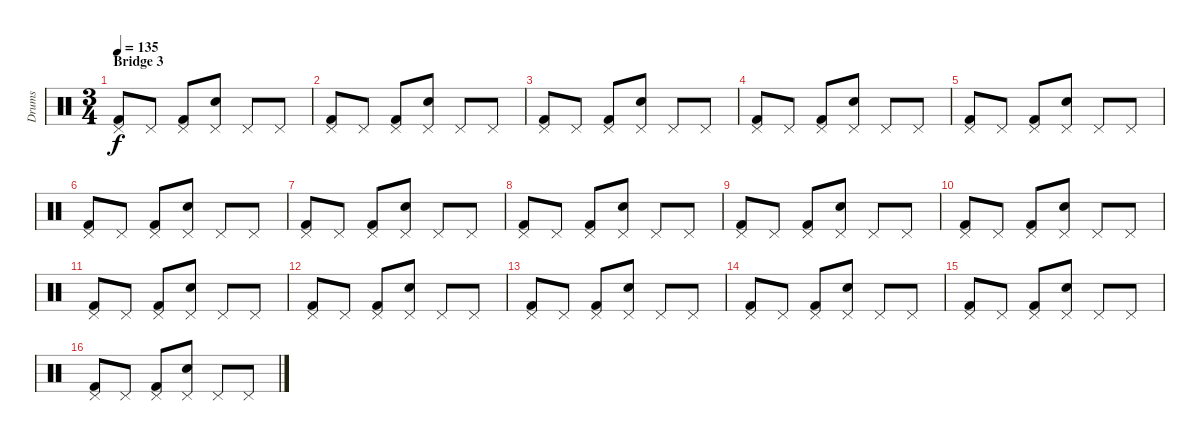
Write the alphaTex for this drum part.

\track ("Drums" "Drums") {instrument percussion}
\staff {score}
\articulation defaults
\ts (3 4)
\section ("" "Bridge 3")
\tempo 135
\clef neutral
\ks c
("Pedal Hi-Hat (hit)" "Kick (hit) 2").8{dy f} "Pedal Hi-Hat (hit)".8 ("Pedal Hi-Hat (hit)" "Kick (hit) 2").8 ("Pedal Hi-Hat (hit)" "Snare (hit) 2").8 "Pedal Hi-Hat (hit)".8 "Pedal Hi-Hat (hit)".8 |
("Pedal Hi-Hat (hit)" "Kick (hit) 2").8 "Pedal Hi-Hat (hit)".8 ("Pedal Hi-Hat (hit)" "Kick (hit) 2").8 ("Pedal Hi-Hat (hit)" "Snare (hit) 2").8 "Pedal Hi-Hat (hit)".8 "Pedal Hi-Hat (hit)".8 |
("Pedal Hi-Hat (hit)" "Kick (hit) 2").8 "Pedal Hi-Hat (hit)".8 ("Pedal Hi-Hat (hit)" "Kick (hit) 2").8 ("Pedal Hi-Hat (hit)" "Snare (hit) 2").8 "Pedal Hi-Hat (hit)".8 "Pedal Hi-Hat (hit)".8 |
("Pedal Hi-Hat (hit)" "Kick (hit) 2").8 "Pedal Hi-Hat (hit)".8 ("Pedal Hi-Hat (hit)" "Kick (hit) 2").8 ("Pedal Hi-Hat (hit)" "Snare (hit) 2").8 "Pedal Hi-Hat (hit)".8 "Pedal Hi-Hat (hit)".8 |
("Pedal Hi-Hat (hit)" "Kick (hit) 2").8 "Pedal Hi-Hat (hit)".8 ("Pedal Hi-Hat (hit)" "Kick (hit) 2").8 ("Pedal Hi-Hat (hit)" "Snare (hit) 2").8 "Pedal Hi-Hat (hit)".8 "Pedal Hi-Hat (hit)".8 |
("Pedal Hi-Hat (hit)" "Kick (hit) 2").8 "Pedal Hi-Hat (hit)".8 ("Pedal Hi-Hat (hit)" "Kick (hit) 2").8 ("Pedal Hi-Hat (hit)" "Snare (hit) 2").8 "Pedal Hi-Hat (hit)".8 "Pedal Hi-Hat (hit)".8 |
("Pedal Hi-Hat (hit)" "Kick (hit) 2").8 "Pedal Hi-Hat (hit)".8 ("Pedal Hi-Hat (hit)" "Kick (hit) 2").8 ("Pedal Hi-Hat (hit)" "Snare (hit) 2").8 "Pedal Hi-Hat (hit)".8 "Pedal Hi-Hat (hit)".8 |
("Pedal Hi-Hat (hit)" "Kick (hit) 2").8 "Pedal Hi-Hat (hit)".8 ("Pedal Hi-Hat (hit)" "Kick (hit) 2").8 ("Pedal Hi-Hat (hit)" "Snare (hit) 2").8 "Pedal Hi-Hat (hit)".8 "Pedal Hi-Hat (hit)".8 |
("Pedal Hi-Hat (hit)" "Kick (hit) 2").8 "Pedal Hi-Hat (hit)".8 ("Pedal Hi-Hat (hit)" "Kick (hit) 2").8 ("Pedal Hi-Hat (hit)" "Snare (hit) 2").8 "Pedal Hi-Hat (hit)".8 "Pedal Hi-Hat (hit)".8 |
("Pedal Hi-Hat (hit)" "Kick (hit) 2").8 "Pedal Hi-Hat (hit)".8 ("Pedal Hi-Hat (hit)" "Kick (hit) 2").8 ("Pedal Hi-Hat (hit)" "Snare (hit) 2").8 "Pedal Hi-Hat (hit)".8 "Pedal Hi-Hat (hit)".8 |
("Pedal Hi-Hat (hit)" "Kick (hit) 2").8 "Pedal Hi-Hat (hit)".8 ("Pedal Hi-Hat (hit)" "Kick (hit) 2").8 ("Pedal Hi-Hat (hit)" "Snare (hit) 2").8 "Pedal Hi-Hat (hit)".8 "Pedal Hi-Hat (hit)".8 |
("Pedal Hi-Hat (hit)" "Kick (hit) 2").8 "Pedal Hi-Hat (hit)".8 ("Pedal Hi-Hat (hit)" "Kick (hit) 2").8 ("Pedal Hi-Hat (hit)" "Snare (hit) 2").8 "Pedal Hi-Hat (hit)".8 "Pedal Hi-Hat (hit)".8 |
("Pedal Hi-Hat (hit)" "Kick (hit) 2").8 "Pedal Hi-Hat (hit)".8 ("Pedal Hi-Hat (hit)" "Kick (hit) 2").8 ("Pedal Hi-Hat (hit)" "Snare (hit) 2").8 "Pedal Hi-Hat (hit)".8 "Pedal Hi-Hat (hit)".8 |
("Pedal Hi-Hat (hit)" "Kick (hit) 2").8 "Pedal Hi-Hat (hit)".8 ("Pedal Hi-Hat (hit)" "Kick (hit) 2").8 ("Pedal Hi-Hat (hit)" "Snare (hit) 2").8 "Pedal Hi-Hat (hit)".8 "Pedal Hi-Hat (hit)".8 |
("Pedal Hi-Hat (hit)" "Kick (hit) 2").8 "Pedal Hi-Hat (hit)".8 ("Pedal Hi-Hat (hit)" "Kick (hit) 2").8 ("Pedal Hi-Hat (hit)" "Snare (hit) 2").8 "Pedal Hi-Hat (hit)".8 "Pedal Hi-Hat (hit)".8 |
("Pedal Hi-Hat (hit)" "Kick (hit) 2").8 "Pedal Hi-Hat (hit)".8 ("Pedal Hi-Hat (hit)" "Kick (hit) 2").8 ("Pedal Hi-Hat (hit)" "Snare (hit) 2").8 "Pedal Hi-Hat (hit)".8 "Pedal Hi-Hat (hit)".8
